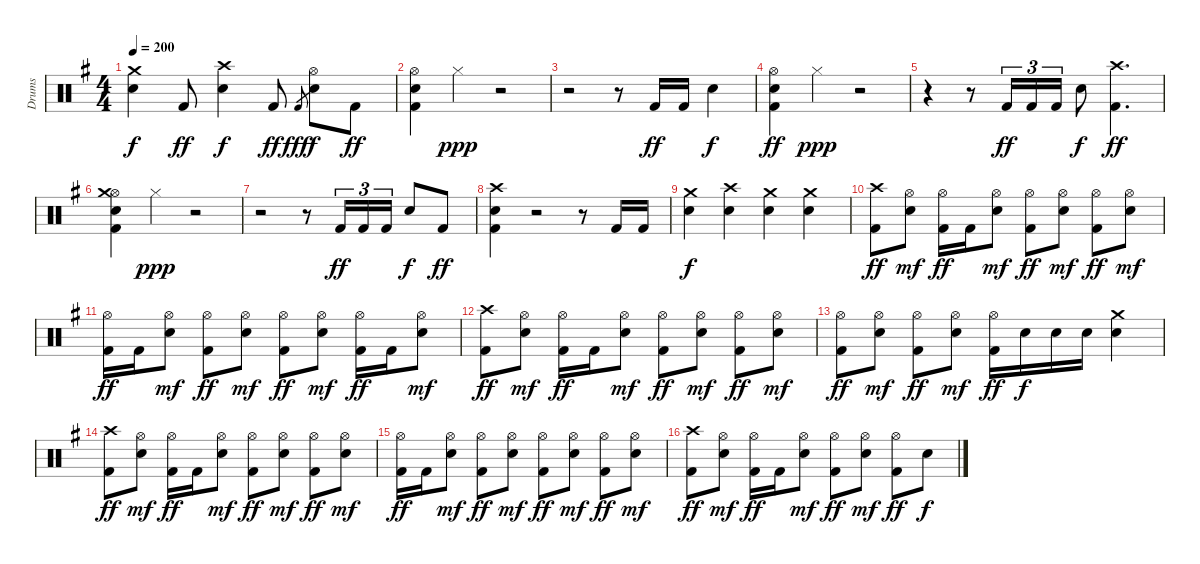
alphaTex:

\track ("Drums" "Drums") {instrument percussion}
\staff {score}
\articulation defaults
\ts (4 4)
\tempo 200
\clef neutral
\ks g
("Crash medium (hit)" "Snare (hit) 2").4{dy f} "Kick (hit) 2".8{dy ff} ("Crash high (hit)" "Snare (hit) 2").4{dy f} "Kick (hit) 2".8{dy ff} "Kick (hit) 2".8{gr dy fff} ("Hi-Hat (open)" "Snare (hit) 2").8{dy f} "Kick (hit) 2".8{dy ff} |
("Hi-Hat (open)" "Snare (hit) 2" "Kick (hit) 2").4 "Hi-Hat (closed)".4{dy ppp} r.2 |
r.2 r.8 "Kick (hit) 2".16{dy ff} "Kick (hit) 2".16 "Snare (hit) 2".4{dy f} |
("Hi-Hat (open)" "Snare (hit) 2" "Kick (hit) 2").4{dy ff} "Hi-Hat (closed)".4{dy ppp} r.2 |
r.4 r.8 "Kick (hit) 2".16{tu (3 2) dy ff} "Kick (hit) 2".16{tu (3 2)} "Kick (hit) 2".16{tu (3 2)} "Snare (hit) 2".8{dy f} ("Crash high (hit)" "Kick (hit) 2").4{d dy ff} |
("Hi-Hat (open)" "Crash medium (hit)" "Snare (hit) 2" "Kick (hit) 2").4 "Hi-Hat (closed)".4{dy ppp} r.2 |
r.2 r.8 "Kick (hit) 2".16{tu (3 2) dy ff} "Kick (hit) 2".16{tu (3 2)} "Kick (hit) 2".16{tu (3 2)} "Snare (hit) 2".8{dy f} "Kick (hit) 2".8{dy ff} |
("Crash high (hit)" "Snare (hit) 2" "Kick (hit) 2").4 r.2 r.8 "Kick (hit) 2".16 "Kick (hit) 2".16 |
("Crash medium (hit)" "Snare (hit) 2").4{dy f} ("Crash high (hit)" "Snare (hit) 2").4 ("Crash medium (hit)" "Snare (hit) 2").4 ("Crash medium (hit)" "Snare (hit) 2").4 |
("Crash high (hit)" "Kick (hit) 2").8{dy ff} ("Hi-Hat (open)" "Snare (hit) 2").8{dy mf} ("Hi-Hat (open)" "Kick (hit) 2").16{dy ff} "Kick (hit) 2".16 ("Hi-Hat (open)" "Snare (hit) 2").8{dy mf} ("Hi-Hat (open)" "Kick (hit) 2").8{dy ff} ("Hi-Hat (open)" "Snare (hit) 2").8{dy mf} ("Hi-Hat (open)" "Kick (hit) 2").8{dy ff} ("Hi-Hat (open)" "Snare (hit) 2").8{dy mf} |
("Hi-Hat (open)" "Kick (hit) 2").16{dy ff} "Kick (hit) 2".16 ("Hi-Hat (open)" "Snare (hit) 2").8{dy mf} ("Hi-Hat (open)" "Kick (hit) 2").8{dy ff} ("Hi-Hat (open)" "Snare (hit) 2").8{dy mf} ("Hi-Hat (open)" "Kick (hit) 2").8{dy ff} ("Hi-Hat (open)" "Snare (hit) 2").8{dy mf} ("Hi-Hat (open)" "Kick (hit) 2").16{dy ff} "Kick (hit) 2".16 ("Hi-Hat (open)" "Snare (hit) 2").8{dy mf} |
("Crash high (hit)" "Kick (hit) 2").8{dy ff} ("Hi-Hat (open)" "Snare (hit) 2").8{dy mf} ("Hi-Hat (open)" "Kick (hit) 2").16{dy ff} "Kick (hit) 2".16 ("Hi-Hat (open)" "Snare (hit) 2").8{dy mf} ("Hi-Hat (open)" "Kick (hit) 2").8{dy ff} ("Hi-Hat (open)" "Snare (hit) 2").8{dy mf} ("Hi-Hat (open)" "Kick (hit) 2").8{dy ff} ("Hi-Hat (open)" "Snare (hit) 2").8{dy mf} |
("Hi-Hat (open)" "Kick (hit) 2").8{dy ff} ("Hi-Hat (open)" "Snare (hit) 2").8{dy mf} ("Hi-Hat (open)" "Kick (hit) 2").8{dy ff} ("Hi-Hat (open)" "Snare (hit) 2").8{dy mf} ("Hi-Hat (open)" "Kick (hit) 2").16{dy ff} "Snare (hit) 2".16{dy f} "Snare (hit) 2".16 "Snare (hit) 2".16 ("Crash medium (hit)" "Snare (hit) 2").4 |
("Crash high (hit)" "Kick (hit) 2").8{dy ff} ("Hi-Hat (open)" "Snare (hit) 2").8{dy mf} ("Hi-Hat (open)" "Kick (hit) 2").16{dy ff} "Kick (hit) 2".16 ("Hi-Hat (open)" "Snare (hit) 2").8{dy mf} ("Hi-Hat (open)" "Kick (hit) 2").8{dy ff} ("Hi-Hat (open)" "Snare (hit) 2").8{dy mf} ("Hi-Hat (open)" "Kick (hit) 2").8{dy ff} ("Hi-Hat (open)" "Snare (hit) 2").8{dy mf} |
("Hi-Hat (open)" "Kick (hit) 2").16{dy ff} "Kick (hit) 2".16 ("Hi-Hat (open)" "Snare (hit) 2").8{dy mf} ("Hi-Hat (open)" "Kick (hit) 2").8{dy ff} ("Hi-Hat (open)" "Snare (hit) 2").8{dy mf} ("Hi-Hat (open)" "Kick (hit) 2").8{dy ff} ("Hi-Hat (open)" "Snare (hit) 2").8{dy mf} ("Hi-Hat (open)" "Kick (hit) 2").8{dy ff} ("Hi-Hat (open)" "Snare (hit) 2").8{dy mf} |
("Crash high (hit)" "Kick (hit) 2").8{dy ff} ("Hi-Hat (open)" "Snare (hit) 2").8{dy mf} ("Hi-Hat (open)" "Kick (hit) 2").16{dy ff} "Kick (hit) 2".16 ("Hi-Hat (open)" "Snare (hit) 2").8{dy mf} ("Hi-Hat (open)" "Kick (hit) 2").8{dy ff} ("Hi-Hat (open)" "Snare (hit) 2").8{dy mf} ("Hi-Hat (open)" "Kick (hit) 2").8{dy ff} "Snare (hit) 2".8{dy f}
